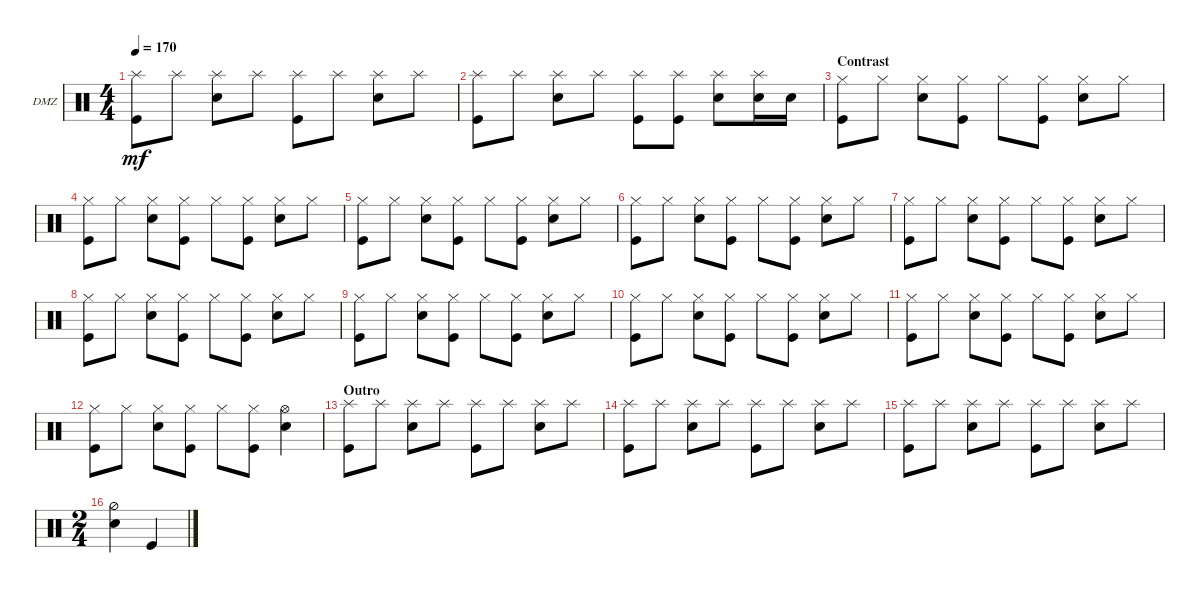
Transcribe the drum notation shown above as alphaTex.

\defaultSystemsLayout 4
\bracketExtendMode groupsimilarinstruments
\firstSystemTrackNameOrientation horizontal
\otherSystemsTrackNameOrientation horizontal
\track ("Drumz" "DMZ") {instrument percussion}
\staff {score}
\articulation defaults
\ts (4 4)
\tempo 170
\clef neutral
\ks c
("Splash (hit)" "Kick (hit)").8{dy mf} "Splash (hit)".8 ("Splash (hit)" "Snare (hit) 2").8 "Splash (hit)".8 ("Splash (hit)" "Kick (hit)").8 "Splash (hit)".8 ("Splash (hit)" "Snare (hit) 2").8 "Splash (hit)".8 |
("Splash (hit)" "Kick (hit)").8 "Splash (hit)".8 ("Splash (hit)" "Snare (hit) 2").8 "Splash (hit)".8 ("Splash (hit)" "Kick (hit)").8 ("Splash (hit)" "Kick (hit)").8 ("Splash (hit)" "Snare (hit) 2").8 ("Snare (hit) 2" "Splash (hit)").16 "Snare (hit) 2".16 |
\section ("" "Contrast")
("Hi-Hat (closed)" "Kick (hit)").8 "Hi-Hat (closed)".8 ("Hi-Hat (closed)" "Snare (hit) 2").8 ("Hi-Hat (closed)" "Kick (hit)").8 "Hi-Hat (closed)".8 ("Hi-Hat (closed)" "Kick (hit)").8 ("Hi-Hat (closed)" "Snare (hit) 2").8 "Hi-Hat (closed)".8 |
("Hi-Hat (closed)" "Kick (hit)").8 "Hi-Hat (closed)".8 ("Hi-Hat (closed)" "Snare (hit) 2").8 ("Hi-Hat (closed)" "Kick (hit)").8 "Hi-Hat (closed)".8 ("Hi-Hat (closed)" "Kick (hit)").8 ("Hi-Hat (closed)" "Snare (hit) 2").8 "Hi-Hat (closed)".8 |
("Hi-Hat (closed)" "Kick (hit)").8 "Hi-Hat (closed)".8 ("Hi-Hat (closed)" "Snare (hit) 2").8 ("Hi-Hat (closed)" "Kick (hit)").8 "Hi-Hat (closed)".8 ("Hi-Hat (closed)" "Kick (hit)").8 ("Hi-Hat (closed)" "Snare (hit) 2").8 "Hi-Hat (closed)".8 |
("Hi-Hat (closed)" "Kick (hit)").8 "Hi-Hat (closed)".8 ("Hi-Hat (closed)" "Snare (hit) 2").8 ("Hi-Hat (closed)" "Kick (hit)").8 "Hi-Hat (closed)".8 ("Hi-Hat (closed)" "Kick (hit)").8 ("Hi-Hat (closed)" "Snare (hit) 2").8 "Hi-Hat (closed)".8 |
("Hi-Hat (closed)" "Kick (hit)").8 "Hi-Hat (closed)".8 ("Hi-Hat (closed)" "Snare (hit) 2").8 ("Hi-Hat (closed)" "Kick (hit)").8 "Hi-Hat (closed)".8 ("Hi-Hat (closed)" "Kick (hit)").8 ("Hi-Hat (closed)" "Snare (hit) 2").8 "Hi-Hat (closed)".8 |
("Hi-Hat (closed)" "Kick (hit)").8 "Hi-Hat (closed)".8 ("Hi-Hat (closed)" "Snare (hit) 2").8 ("Hi-Hat (closed)" "Kick (hit)").8 "Hi-Hat (closed)".8 ("Hi-Hat (closed)" "Kick (hit)").8 ("Hi-Hat (closed)" "Snare (hit) 2").8 "Hi-Hat (closed)".8 |
("Hi-Hat (closed)" "Kick (hit)").8 "Hi-Hat (closed)".8 ("Hi-Hat (closed)" "Snare (hit) 2").8 ("Hi-Hat (closed)" "Kick (hit)").8 "Hi-Hat (closed)".8 ("Hi-Hat (closed)" "Kick (hit)").8 ("Hi-Hat (closed)" "Snare (hit) 2").8 "Hi-Hat (closed)".8 |
("Hi-Hat (closed)" "Kick (hit)").8 "Hi-Hat (closed)".8 ("Hi-Hat (closed)" "Snare (hit) 2").8 ("Hi-Hat (closed)" "Kick (hit)").8 "Hi-Hat (closed)".8 ("Hi-Hat (closed)" "Kick (hit)").8 ("Hi-Hat (closed)" "Snare (hit) 2").8 "Hi-Hat (closed)".8 |
("Hi-Hat (closed)" "Kick (hit)").8 "Hi-Hat (closed)".8 ("Hi-Hat (closed)" "Snare (hit) 2").8 ("Hi-Hat (closed)" "Kick (hit)").8 "Hi-Hat (closed)".8 ("Hi-Hat (closed)" "Kick (hit)").8 ("Hi-Hat (closed)" "Snare (hit) 2").8 "Hi-Hat (closed)".8 |
("Hi-Hat (closed)" "Kick (hit)").8 "Hi-Hat (closed)".8 ("Hi-Hat (closed)" "Snare (hit) 2").8 ("Hi-Hat (closed)" "Kick (hit)").8 "Hi-Hat (closed)".8 ("Hi-Hat (closed)" "Kick (hit)").8 ("Snare (hit) 2" "Hi-Hat (open)").4 |
\section ("" "Outro")
("Splash (hit)" "Kick (hit)").8 "Splash (hit)".8 ("Splash (hit)" "Snare (hit) 2").8 "Splash (hit)".8 ("Splash (hit)" "Kick (hit)").8 "Splash (hit)".8 ("Splash (hit)" "Snare (hit) 2").8 "Splash (hit)".8 |
("Splash (hit)" "Kick (hit)").8 "Splash (hit)".8 ("Splash (hit)" "Snare (hit) 2").8 "Splash (hit)".8 ("Splash (hit)" "Kick (hit)").8 "Splash (hit)".8 ("Splash (hit)" "Snare (hit) 2").8 "Splash (hit)".8 |
("Splash (hit)" "Kick (hit)").8 "Splash (hit)".8 ("Splash (hit)" "Snare (hit) 2").8 "Splash (hit)".8 ("Splash (hit)" "Kick (hit)").8 "Splash (hit)".8 ("Splash (hit)" "Snare (hit) 2").8 "Splash (hit)".8 |
\ts (2 4)
("Hi-Hat (half)" "Snare (hit) 2").4 "Kick (hit)".4
